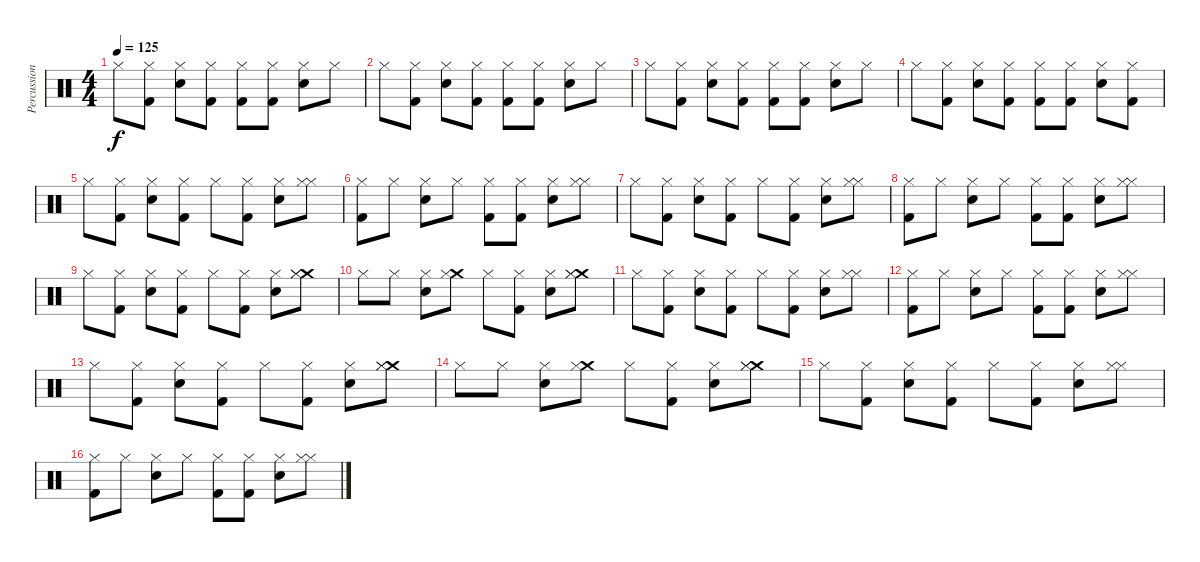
\track ("Percussion" "Percussion") {instrument percussion}
\staff {score}
\articulation defaults
\ts (4 4)
\tempo 125
\clef neutral
\ks c "Hi-Hat (closed)".8{dy f}
("Hi-Hat (closed)" "Kick (hit) 2").8 ("Hi-Hat (closed)" "Electric Snare (hit)").8 ("Hi-Hat (closed)" "Kick (hit) 2").8 ("Hi-Hat (closed)" "Kick (hit) 2").8 ("Hi-Hat (closed)" "Kick (hit) 2").8 ("Hi-Hat (closed)" "Electric Snare (hit)").8 "Hi-Hat (closed)".8 |
"Hi-Hat (closed)".8 ("Hi-Hat (closed)" "Kick (hit) 2").8 ("Hi-Hat (closed)" "Electric Snare (hit)").8 ("Hi-Hat (closed)" "Kick (hit) 2").8 ("Hi-Hat (closed)" "Kick (hit) 2").8 ("Hi-Hat (closed)" "Kick (hit) 2").8 ("Hi-Hat (closed)" "Electric Snare (hit)").8 "Hi-Hat (closed)".8 |
"Hi-Hat (closed)".8 ("Hi-Hat (closed)" "Kick (hit) 2").8 ("Hi-Hat (closed)" "Electric Snare (hit)").8 ("Hi-Hat (closed)" "Kick (hit) 2").8 ("Hi-Hat (closed)" "Kick (hit) 2").8 ("Hi-Hat (closed)" "Kick (hit) 2").8 ("Hi-Hat (closed)" "Electric Snare (hit)").8 "Hi-Hat (closed)".8 |
"Hi-Hat (closed)".8 ("Hi-Hat (closed)" "Kick (hit) 2").8 ("Hi-Hat (closed)" "Electric Snare (hit)").8 ("Hi-Hat (closed)" "Kick (hit) 2").8 ("Hi-Hat (closed)" "Kick (hit) 2").8 ("Hi-Hat (closed)" "Kick (hit) 2").8 ("Hi-Hat (closed)" "Electric Snare (hit)").8 ("Hi-Hat (closed)" "Kick (hit) 2").8 |
"Hi-Hat (closed)".8 ("Hi-Hat (closed)" "Kick (hit) 2").8 ("Hi-Hat (closed)" "Electric Snare (hit)").8 ("Hi-Hat (closed)" "Kick (hit) 2").8 "Hi-Hat (closed)".8 ("Hi-Hat (closed)" "Kick (hit) 2").8 ("Hi-Hat (closed)" "Electric Snare (hit)").8 ("Hi-Hat (closed)" "Hi-Hat (closed)").8 |
("Hi-Hat (closed)" "Kick (hit) 2").8 "Hi-Hat (closed)".8 ("Hi-Hat (closed)" "Electric Snare (hit)").8 "Hi-Hat (closed)".8 ("Hi-Hat (closed)" "Kick (hit) 2").8 ("Hi-Hat (closed)" "Kick (hit) 2").8 ("Hi-Hat (closed)" "Electric Snare (hit)").8 ("Hi-Hat (closed)" "Hi-Hat (closed)").8 |
"Hi-Hat (closed)".8 ("Hi-Hat (closed)" "Kick (hit) 2").8 ("Hi-Hat (closed)" "Electric Snare (hit)").8 ("Hi-Hat (closed)" "Kick (hit) 2").8 "Hi-Hat (closed)".8 ("Hi-Hat (closed)" "Kick (hit) 2").8 ("Hi-Hat (closed)" "Electric Snare (hit)").8 ("Hi-Hat (closed)" "Hi-Hat (closed)").8 |
("Hi-Hat (closed)" "Kick (hit) 2").8 "Hi-Hat (closed)".8 ("Hi-Hat (closed)" "Electric Snare (hit)").8 "Hi-Hat (closed)".8 ("Hi-Hat (closed)" "Kick (hit) 2").8 ("Hi-Hat (closed)" "Kick (hit) 2").8 ("Hi-Hat (closed)" "Electric Snare (hit)").8 ("Hi-Hat (closed)" "Hi-Hat (closed)").8 |
"Hi-Hat (closed)".8 ("Hi-Hat (closed)" "Kick (hit) 2").8 ("Hi-Hat (closed)" "Electric Snare (hit)").8 ("Hi-Hat (closed)" "Kick (hit) 2").8 "Hi-Hat (closed)".8 ("Hi-Hat (closed)" "Kick (hit) 2").8 ("Hi-Hat (closed)" "Electric Snare (hit)").8 ("Crash medium (hit)" "Hi-Hat (closed)" "Hi-Hat (closed)").8 |
"Hi-Hat (closed)".8 "Hi-Hat (closed)".8 ("Hi-Hat (closed)" "Electric Snare (hit)").8 ("Crash medium (hit)" "Hi-Hat (closed)").8 "Hi-Hat (closed)".8 ("Hi-Hat (closed)" "Kick (hit) 2").8 ("Hi-Hat (closed)" "Electric Snare (hit)").8 ("Crash medium (hit)" "Hi-Hat (closed)" "Hi-Hat (closed)").8 |
"Hi-Hat (closed)".8 ("Hi-Hat (closed)" "Kick (hit) 2").8 ("Hi-Hat (closed)" "Electric Snare (hit)").8 ("Hi-Hat (closed)" "Kick (hit) 2").8 "Hi-Hat (closed)".8 ("Hi-Hat (closed)" "Kick (hit) 2").8 ("Hi-Hat (closed)" "Electric Snare (hit)").8 ("Hi-Hat (closed)" "Hi-Hat (closed)").8 |
("Hi-Hat (closed)" "Kick (hit) 2").8 "Hi-Hat (closed)".8 ("Hi-Hat (closed)" "Electric Snare (hit)").8 "Hi-Hat (closed)".8 ("Hi-Hat (closed)" "Kick (hit) 2").8 ("Hi-Hat (closed)" "Kick (hit) 2").8 ("Hi-Hat (closed)" "Electric Snare (hit)").8 ("Hi-Hat (closed)" "Hi-Hat (closed)").8 |
"Hi-Hat (closed)".8 ("Hi-Hat (closed)" "Kick (hit) 2").8 ("Hi-Hat (closed)" "Electric Snare (hit)").8 ("Hi-Hat (closed)" "Kick (hit) 2").8 "Hi-Hat (closed)".8 ("Hi-Hat (closed)" "Kick (hit) 2").8 ("Hi-Hat (closed)" "Electric Snare (hit)").8 ("Crash medium (hit)" "Hi-Hat (closed)" "Hi-Hat (closed)").8 |
"Hi-Hat (closed)".8 "Hi-Hat (closed)".8 ("Hi-Hat (closed)" "Electric Snare (hit)").8 ("Crash medium (hit)" "Hi-Hat (closed)").8 "Hi-Hat (closed)".8 ("Hi-Hat (closed)" "Kick (hit) 2").8 ("Hi-Hat (closed)" "Electric Snare (hit)").8 ("Crash medium (hit)" "Hi-Hat (closed)" "Hi-Hat (closed)").8 |
"Hi-Hat (closed)".8 ("Hi-Hat (closed)" "Kick (hit) 2").8 ("Hi-Hat (closed)" "Electric Snare (hit)").8 ("Hi-Hat (closed)" "Kick (hit) 2").8 "Hi-Hat (closed)".8 ("Hi-Hat (closed)" "Kick (hit) 2").8 ("Hi-Hat (closed)" "Electric Snare (hit)").8 ("Hi-Hat (closed)" "Hi-Hat (closed)").8 |
("Hi-Hat (closed)" "Kick (hit) 2").8 "Hi-Hat (closed)".8 ("Hi-Hat (closed)" "Electric Snare (hit)").8 "Hi-Hat (closed)".8 ("Hi-Hat (closed)" "Kick (hit) 2").8 ("Hi-Hat (closed)" "Kick (hit) 2").8 ("Hi-Hat (closed)" "Electric Snare (hit)").8 ("Hi-Hat (closed)" "Hi-Hat (closed)").8
